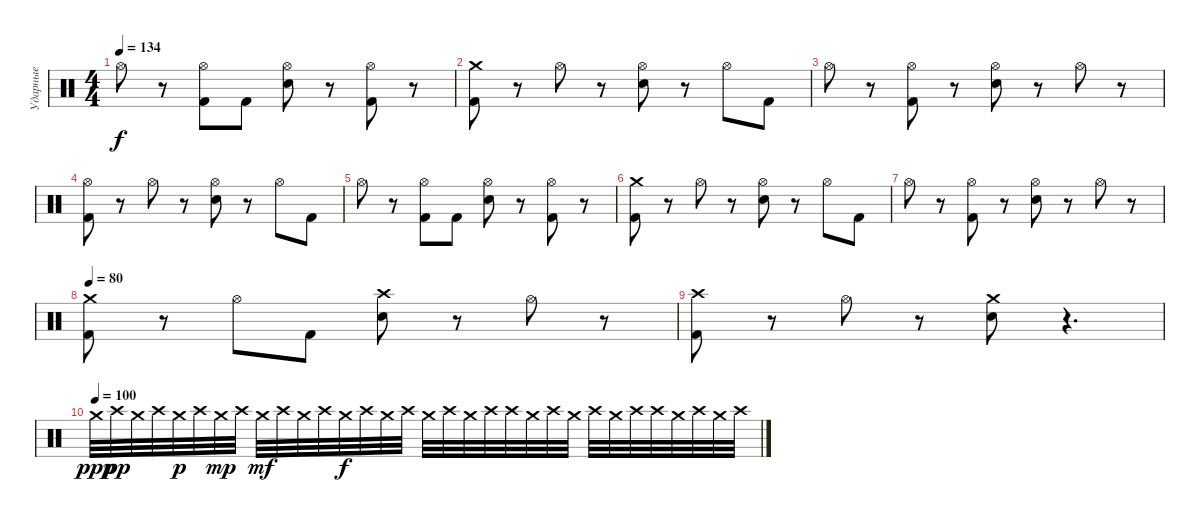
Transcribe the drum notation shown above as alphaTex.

\track ("Ударные" "Ударные") {instrument percussion}
\staff {score}
\articulation defaults
\ts (4 4)
\tempo 134
\clef neutral
\ks c "Hi-Hat (open)".8{dy f}
r.8 ("Hi-Hat (open)" "Kick (hit) 2").8 "Kick (hit) 2".8 ("Hi-Hat (open)" "Electric Snare (hit)").8 r.8 ("Hi-Hat (open)" "Kick (hit) 2").8 r.8 |
("Crash medium (hit)" "Kick (hit) 2").8 r.8 "Hi-Hat (open)".8 r.8 ("Hi-Hat (open)" "Electric Snare (hit)").8 r.8 "Hi-Hat (open)".8 "Kick (hit) 2".8 |
"Hi-Hat (open)".8 r.8 ("Hi-Hat (open)" "Kick (hit) 2").8 r.8 ("Hi-Hat (open)" "Electric Snare (hit)").8 r.8 "Hi-Hat (open)".8 r.8 |
("Hi-Hat (open)" "Kick (hit) 2").8 r.8 "Hi-Hat (open)".8 r.8 ("Hi-Hat (open)" "Electric Snare (hit)").8 r.8 "Hi-Hat (open)".8 "Kick (hit) 2".8 |
"Hi-Hat (open)".8 r.8 ("Hi-Hat (open)" "Kick (hit) 2").8 "Kick (hit) 2".8 ("Hi-Hat (open)" "Electric Snare (hit)").8 r.8 ("Hi-Hat (open)" "Kick (hit) 2").8 r.8 |
("Crash medium (hit)" "Kick (hit) 2").8 r.8 "Hi-Hat (open)".8 r.8 ("Hi-Hat (open)" "Electric Snare (hit)").8 r.8 "Hi-Hat (open)".8 "Kick (hit) 2".8 |
"Hi-Hat (open)".8 r.8 ("Hi-Hat (open)" "Kick (hit) 2").8 r.8 ("Hi-Hat (open)" "Electric Snare (hit)").8 r.8 "Hi-Hat (open)".8 r.8 |
\tempo 80
("Crash medium (hit)" "Kick (hit) 2").8 r.8 "Hi-Hat (open)".8 "Kick (hit) 2".8 ("Crash high (hit)" "Electric Snare (hit)").8 r.8 "Hi-Hat (open)".8 r.8 |
("Crash high (hit)" "Kick (hit) 2").8 r.8 "Hi-Hat (open)".8 r.8 ("Crash medium (hit)" "Electric Snare (hit)").8 r.4{d} |
\tempo (100)
"Crash medium (hit)".32{dy ppp} "Crash high (hit)".32{dy pp} "Crash medium (hit)".32 "Crash high (hit)".32 "Crash medium (hit)".32{dy p} "Crash high (hit)".32 "Crash medium (hit)".32{dy mp} "Crash high (hit)".32 "Crash medium (hit)".32{dy mf} "Crash high (hit)".32 "Crash medium (hit)".32 "Crash high (hit)".32 "Crash medium (hit)".32{dy f} "Crash high (hit)".32 "Crash medium (hit)".32 "Crash high (hit)".32 "Crash medium (hit)".32 "Crash high (hit)".32 "Crash medium (hit)".32 "Crash high (hit)".32 "Crash high (hit)".32 "Crash medium (hit)".32 "Crash high (hit)".32 "Crash medium (hit)".32 "Crash high (hit)".32 "Crash medium (hit)".32 "Crash high (hit)".32 "Crash high (hit)".32 "Crash medium (hit)".32 "Crash high (hit)".32 "Crash medium (hit)".32 "Crash high (hit)".32
